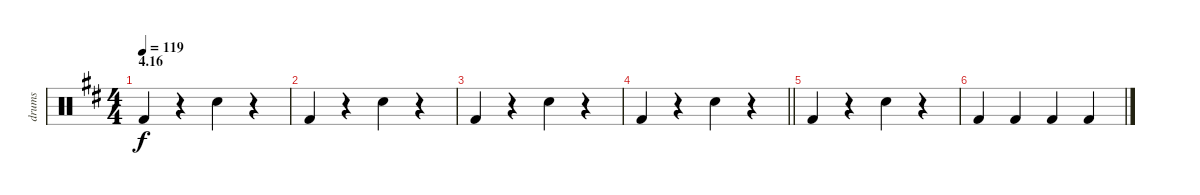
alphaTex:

\track ("drums" "drums") {instrument percussion}
\staff {score}
\articulation defaults
\ts (4 4)
\section ("" "4.16")
\tempo 119
\clef neutral
\ks d "Kick (hit) 2".4{dy f}
r.4 "Electric Snare (hit)".4 r.4 |
"Kick (hit) 2".4 r.4 "Electric Snare (hit)".4 r.4 |
"Kick (hit) 2".4 r.4 "Electric Snare (hit)".4 r.4 |
\barLineRight lightlight "Kick (hit) 2".4
r.4 "Electric Snare (hit)".4 r.4 |
"Kick (hit) 2".4 r.4 "Electric Snare (hit)".4 r.4 |
"Kick (hit) 2".4 "Kick (hit) 2".4 "Kick (hit) 2".4 "Kick (hit) 2".4
